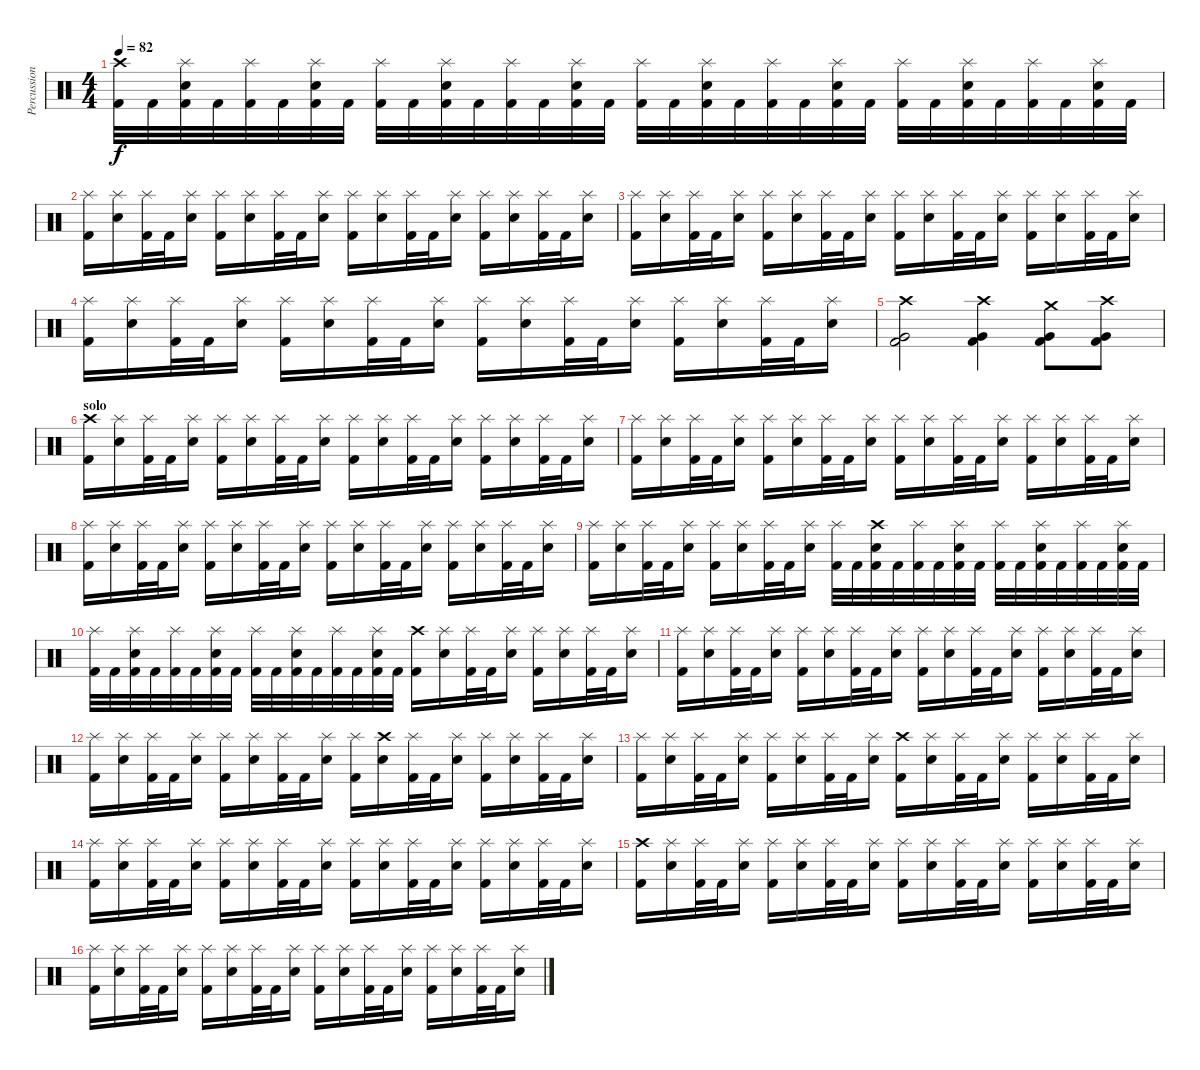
\track ("Percussion" "Percussion") {instrument percussion}
\staff {score}
\articulation defaults
\ts (4 4)
\tempo 82
\clef neutral
\ks c
("Crash high (hit)" "Kick (hit) 2").32{dy f} "Kick (hit) 2".32 ("Splash (hit)" "Electric Snare (hit)" "Kick (hit) 2").32 "Kick (hit) 2".32 ("Splash (hit)" "Kick (hit) 2").32 "Kick (hit) 2".32 ("Splash (hit)" "Electric Snare (hit)" "Kick (hit) 2").32 "Kick (hit) 2".32 ("Splash (hit)" "Kick (hit) 2").32 "Kick (hit) 2".32 ("Splash (hit)" "Electric Snare (hit)" "Kick (hit) 2").32 "Kick (hit) 2".32 ("Splash (hit)" "Kick (hit) 2").32 "Kick (hit) 2".32 ("Splash (hit)" "Electric Snare (hit)" "Kick (hit) 2").32 "Kick (hit) 2".32 ("Splash (hit)" "Kick (hit) 2").32 "Kick (hit) 2".32 ("Splash (hit)" "Electric Snare (hit)" "Kick (hit) 2").32 "Kick (hit) 2".32 ("Splash (hit)" "Kick (hit) 2").32 "Kick (hit) 2".32 ("Splash (hit)" "Electric Snare (hit)" "Kick (hit) 2").32 "Kick (hit) 2".32 ("Splash (hit)" "Kick (hit) 2").32 "Kick (hit) 2".32 ("Splash (hit)" "Electric Snare (hit)" "Kick (hit) 2").32 "Kick (hit) 2".32 ("Splash (hit)" "Kick (hit) 2").32 "Kick (hit) 2".32 ("Splash (hit)" "Electric Snare (hit)" "Kick (hit) 2").32 "Kick (hit) 2".32 |
\section ("" "")
("Splash (hit)" "Kick (hit) 2").16 ("Splash (hit)" "Electric Snare (hit)").16 ("Splash (hit)" "Kick (hit) 2").32 "Kick (hit) 2".32 ("Splash (hit)" "Electric Snare (hit)").16 ("Splash (hit)" "Kick (hit) 2").16 ("Splash (hit)" "Electric Snare (hit)").16 ("Splash (hit)" "Kick (hit) 2").32 "Kick (hit) 2".32 ("Splash (hit)" "Electric Snare (hit)").16 ("Splash (hit)" "Kick (hit) 2").16 ("Splash (hit)" "Electric Snare (hit)").16 ("Splash (hit)" "Kick (hit) 2").32 "Kick (hit) 2".32 ("Splash (hit)" "Electric Snare (hit)").16 ("Splash (hit)" "Kick (hit) 2").16 ("Splash (hit)" "Electric Snare (hit)").16 ("Splash (hit)" "Kick (hit) 2").32 "Kick (hit) 2".32 ("Splash (hit)" "Electric Snare (hit)").16 |
("Splash (hit)" "Kick (hit) 2").16 ("Splash (hit)" "Electric Snare (hit)").16 ("Splash (hit)" "Kick (hit) 2").32 "Kick (hit) 2".32 ("Splash (hit)" "Electric Snare (hit)").16 ("Splash (hit)" "Kick (hit) 2").16 ("Splash (hit)" "Electric Snare (hit)").16 ("Splash (hit)" "Kick (hit) 2").32 "Kick (hit) 2".32 ("Splash (hit)" "Electric Snare (hit)").16 ("Splash (hit)" "Kick (hit) 2").16 ("Splash (hit)" "Electric Snare (hit)").16 ("Splash (hit)" "Kick (hit) 2").32 "Kick (hit) 2".32 ("Splash (hit)" "Electric Snare (hit)").16 ("Splash (hit)" "Kick (hit) 2").16 ("Splash (hit)" "Electric Snare (hit)").16 ("Splash (hit)" "Kick (hit) 2").32 "Kick (hit) 2".32 ("Splash (hit)" "Electric Snare (hit)").16 |
("Splash (hit)" "Kick (hit) 2").16 ("Splash (hit)" "Electric Snare (hit)").16 ("Splash (hit)" "Kick (hit) 2").32 "Kick (hit) 2".32 ("Splash (hit)" "Electric Snare (hit)").16 ("Splash (hit)" "Kick (hit) 2").16 ("Splash (hit)" "Electric Snare (hit)").16 ("Splash (hit)" "Kick (hit) 2").32 "Kick (hit) 2".32 ("Splash (hit)" "Electric Snare (hit)").16 ("Splash (hit)" "Kick (hit) 2").16 ("Splash (hit)" "Electric Snare (hit)").16 ("Splash (hit)" "Kick (hit) 2").32 "Kick (hit) 2".32 ("Splash (hit)" "Electric Snare (hit)").16 ("Splash (hit)" "Kick (hit) 2").16 ("Splash (hit)" "Electric Snare (hit)").16 ("Splash (hit)" "Kick (hit) 2").32 "Kick (hit) 2".32 ("Splash (hit)" "Electric Snare (hit)").16 |
("Crash high (hit)" "Very Low Tom (hit)" "Kick (hit) 2").2 ("Crash high (hit)" "Very Low Tom (hit)" "Kick (hit) 2").4 ("Crash medium (hit)" "Very Low Tom (hit)" "Kick (hit) 2").8 ("Crash high (hit)" "Very Low Tom (hit)" "Kick (hit) 2").8 |
\section ("" "solo")
("Crash high (hit)" "Kick (hit) 2").16 ("Splash (hit)" "Electric Snare (hit)").16 ("Splash (hit)" "Kick (hit) 2").32 "Kick (hit) 2".32 ("Splash (hit)" "Electric Snare (hit)").16 ("Splash (hit)" "Kick (hit) 2").16 ("Splash (hit)" "Electric Snare (hit)").16 ("Splash (hit)" "Kick (hit) 2").32 "Kick (hit) 2".32 ("Splash (hit)" "Electric Snare (hit)").16 ("Splash (hit)" "Kick (hit) 2").16 ("Splash (hit)" "Electric Snare (hit)").16 ("Splash (hit)" "Kick (hit) 2").32 "Kick (hit) 2".32 ("Splash (hit)" "Electric Snare (hit)").16 ("Splash (hit)" "Kick (hit) 2").16 ("Splash (hit)" "Electric Snare (hit)").16 ("Splash (hit)" "Kick (hit) 2").32 "Kick (hit) 2".32 ("Splash (hit)" "Electric Snare (hit)").16 |
("Splash (hit)" "Kick (hit) 2").16 ("Splash (hit)" "Electric Snare (hit)").16 ("Splash (hit)" "Kick (hit) 2").32 "Kick (hit) 2".32 ("Splash (hit)" "Electric Snare (hit)").16 ("Splash (hit)" "Kick (hit) 2").16 ("Splash (hit)" "Electric Snare (hit)").16 ("Splash (hit)" "Kick (hit) 2").32 "Kick (hit) 2".32 ("Splash (hit)" "Electric Snare (hit)").16 ("Splash (hit)" "Kick (hit) 2").16 ("Splash (hit)" "Electric Snare (hit)").16 ("Splash (hit)" "Kick (hit) 2").32 "Kick (hit) 2".32 ("Splash (hit)" "Electric Snare (hit)").16 ("Splash (hit)" "Kick (hit) 2").16 ("Splash (hit)" "Electric Snare (hit)").16 ("Splash (hit)" "Kick (hit) 2").32 "Kick (hit) 2".32 ("Splash (hit)" "Electric Snare (hit)").16 |
("Splash (hit)" "Kick (hit) 2").16 ("Splash (hit)" "Electric Snare (hit)").16 ("Splash (hit)" "Kick (hit) 2").32 "Kick (hit) 2".32 ("Splash (hit)" "Electric Snare (hit)").16 ("Splash (hit)" "Kick (hit) 2").16 ("Splash (hit)" "Electric Snare (hit)").16 ("Splash (hit)" "Kick (hit) 2").32 "Kick (hit) 2".32 ("Splash (hit)" "Electric Snare (hit)").16 ("Splash (hit)" "Kick (hit) 2").16 ("Splash (hit)" "Electric Snare (hit)").16 ("Splash (hit)" "Kick (hit) 2").32 "Kick (hit) 2".32 ("Splash (hit)" "Electric Snare (hit)").16 ("Splash (hit)" "Kick (hit) 2").16 ("Splash (hit)" "Electric Snare (hit)").16 ("Splash (hit)" "Kick (hit) 2").32 "Kick (hit) 2".32 ("Splash (hit)" "Electric Snare (hit)").16 |
("Splash (hit)" "Kick (hit) 2").16 ("Splash (hit)" "Electric Snare (hit)").16 ("Splash (hit)" "Kick (hit) 2").32 "Kick (hit) 2".32 ("Splash (hit)" "Electric Snare (hit)").16 ("Splash (hit)" "Kick (hit) 2").16 ("Splash (hit)" "Electric Snare (hit)").16 ("Splash (hit)" "Kick (hit) 2").32 "Kick (hit) 2".32 ("Splash (hit)" "Electric Snare (hit)").16 ("Splash (hit)" "Kick (hit) 2").32 "Kick (hit) 2".32 ("Crash high (hit)" "Electric Snare (hit)" "Kick (hit) 2").32 "Kick (hit) 2".32 ("Splash (hit)" "Kick (hit) 2").32 "Kick (hit) 2".32 ("Splash (hit)" "Electric Snare (hit)" "Kick (hit) 2").32 "Kick (hit) 2".32 ("Splash (hit)" "Kick (hit) 2").32 "Kick (hit) 2".32 ("Splash (hit)" "Electric Snare (hit)" "Kick (hit) 2").32 "Kick (hit) 2".32 ("Splash (hit)" "Kick (hit) 2").32 "Kick (hit) 2".32 ("Splash (hit)" "Electric Snare (hit)" "Kick (hit) 2").32 "Kick (hit) 2".32 |
("Splash (hit)" "Kick (hit) 2").32 "Kick (hit) 2".32 ("Splash (hit)" "Electric Snare (hit)" "Kick (hit) 2").32 "Kick (hit) 2".32 ("Splash (hit)" "Kick (hit) 2").32 "Kick (hit) 2".32 ("Splash (hit)" "Electric Snare (hit)" "Kick (hit) 2").32 "Kick (hit) 2".32 ("Splash (hit)" "Kick (hit) 2").32 "Kick (hit) 2".32 ("Splash (hit)" "Electric Snare (hit)" "Kick (hit) 2").32 "Kick (hit) 2".32 ("Splash (hit)" "Kick (hit) 2").32 "Kick (hit) 2".32 ("Splash (hit)" "Electric Snare (hit)" "Kick (hit) 2").32 "Kick (hit) 2".32 ("Crash high (hit)" "Kick (hit) 2").16 ("Splash (hit)" "Electric Snare (hit)").16 ("Splash (hit)" "Kick (hit) 2").32 "Kick (hit) 2".32 ("Splash (hit)" "Electric Snare (hit)").16 ("Splash (hit)" "Kick (hit) 2").16 ("Splash (hit)" "Electric Snare (hit)").16 ("Splash (hit)" "Kick (hit) 2").32 "Kick (hit) 2".32 ("Splash (hit)" "Electric Snare (hit)").16 |
("Splash (hit)" "Kick (hit) 2").16 ("Splash (hit)" "Electric Snare (hit)").16 ("Splash (hit)" "Kick (hit) 2").32 "Kick (hit) 2".32 ("Splash (hit)" "Electric Snare (hit)").16 ("Splash (hit)" "Kick (hit) 2").16 ("Splash (hit)" "Electric Snare (hit)").16 ("Splash (hit)" "Kick (hit) 2").32 "Kick (hit) 2".32 ("Splash (hit)" "Electric Snare (hit)").16 ("Splash (hit)" "Kick (hit) 2").16 ("Splash (hit)" "Electric Snare (hit)").16 ("Splash (hit)" "Kick (hit) 2").32 "Kick (hit) 2".32 ("Splash (hit)" "Electric Snare (hit)").16 ("Splash (hit)" "Kick (hit) 2").16 ("Splash (hit)" "Electric Snare (hit)").16 ("Splash (hit)" "Kick (hit) 2").32 "Kick (hit) 2".32 ("Splash (hit)" "Electric Snare (hit)").16 |
("Splash (hit)" "Kick (hit) 2").16 ("Splash (hit)" "Electric Snare (hit)").16 ("Splash (hit)" "Kick (hit) 2").32 "Kick (hit) 2".32 ("Splash (hit)" "Electric Snare (hit)").16 ("Splash (hit)" "Kick (hit) 2").16 ("Splash (hit)" "Electric Snare (hit)").16 ("Splash (hit)" "Kick (hit) 2").32 "Kick (hit) 2".32 ("Splash (hit)" "Electric Snare (hit)").16 ("Splash (hit)" "Kick (hit) 2").16 ("Crash high (hit)" "Electric Snare (hit)").16 ("Splash (hit)" "Kick (hit) 2").32 "Kick (hit) 2".32 ("Splash (hit)" "Electric Snare (hit)").16 ("Splash (hit)" "Kick (hit) 2").16 ("Splash (hit)" "Electric Snare (hit)").16 ("Splash (hit)" "Kick (hit) 2").32 "Kick (hit) 2".32 ("Splash (hit)" "Electric Snare (hit)").16 |
("Splash (hit)" "Kick (hit) 2").16 ("Splash (hit)" "Electric Snare (hit)").16 ("Splash (hit)" "Kick (hit) 2").32 "Kick (hit) 2".32 ("Splash (hit)" "Electric Snare (hit)").16 ("Splash (hit)" "Kick (hit) 2").16 ("Splash (hit)" "Electric Snare (hit)").16 ("Splash (hit)" "Kick (hit) 2").32 "Kick (hit) 2".32 ("Splash (hit)" "Electric Snare (hit)").16 ("Crash high (hit)" "Kick (hit) 2").16 ("Splash (hit)" "Electric Snare (hit)").16 ("Splash (hit)" "Kick (hit) 2").32 "Kick (hit) 2".32 ("Splash (hit)" "Electric Snare (hit)").16 ("Splash (hit)" "Kick (hit) 2").16 ("Splash (hit)" "Electric Snare (hit)").16 ("Splash (hit)" "Kick (hit) 2").32 "Kick (hit) 2".32 ("Splash (hit)" "Electric Snare (hit)").16 |
("Splash (hit)" "Kick (hit) 2").16 ("Splash (hit)" "Electric Snare (hit)").16 ("Splash (hit)" "Kick (hit) 2").32 "Kick (hit) 2".32 ("Splash (hit)" "Electric Snare (hit)").16 ("Splash (hit)" "Kick (hit) 2").16 ("Splash (hit)" "Electric Snare (hit)").16 ("Splash (hit)" "Kick (hit) 2").32 "Kick (hit) 2".32 ("Splash (hit)" "Electric Snare (hit)").16 ("Splash (hit)" "Kick (hit) 2").16 ("Splash (hit)" "Electric Snare (hit)").16 ("Splash (hit)" "Kick (hit) 2").32 "Kick (hit) 2".32 ("Splash (hit)" "Electric Snare (hit)").16 ("Splash (hit)" "Kick (hit) 2").16 ("Splash (hit)" "Electric Snare (hit)").16 ("Splash (hit)" "Kick (hit) 2").32 "Kick (hit) 2".32 ("Splash (hit)" "Electric Snare (hit)").16 |
("Crash high (hit)" "Kick (hit) 2").16 ("Splash (hit)" "Electric Snare (hit)").16 ("Splash (hit)" "Kick (hit) 2").32 "Kick (hit) 2".32 ("Splash (hit)" "Electric Snare (hit)").16 ("Splash (hit)" "Kick (hit) 2").16 ("Splash (hit)" "Electric Snare (hit)").16 ("Splash (hit)" "Kick (hit) 2").32 "Kick (hit) 2".32 ("Splash (hit)" "Electric Snare (hit)").16 ("Splash (hit)" "Kick (hit) 2").16 ("Splash (hit)" "Electric Snare (hit)").16 ("Splash (hit)" "Kick (hit) 2").32 "Kick (hit) 2".32 ("Splash (hit)" "Electric Snare (hit)").16 ("Splash (hit)" "Kick (hit) 2").16 ("Splash (hit)" "Electric Snare (hit)").16 ("Splash (hit)" "Kick (hit) 2").32 "Kick (hit) 2".32 ("Splash (hit)" "Electric Snare (hit)").16 |
("Splash (hit)" "Kick (hit) 2").16 ("Splash (hit)" "Electric Snare (hit)").16 ("Splash (hit)" "Kick (hit) 2").32 "Kick (hit) 2".32 ("Splash (hit)" "Electric Snare (hit)").16 ("Splash (hit)" "Kick (hit) 2").16 ("Splash (hit)" "Electric Snare (hit)").16 ("Splash (hit)" "Kick (hit) 2").32 "Kick (hit) 2".32 ("Splash (hit)" "Electric Snare (hit)").16 ("Splash (hit)" "Kick (hit) 2").16 ("Splash (hit)" "Electric Snare (hit)").16 ("Splash (hit)" "Kick (hit) 2").32 "Kick (hit) 2".32 ("Splash (hit)" "Electric Snare (hit)").16 ("Splash (hit)" "Kick (hit) 2").16 ("Splash (hit)" "Electric Snare (hit)").16 ("Splash (hit)" "Kick (hit) 2").32 "Kick (hit) 2".32 ("Splash (hit)" "Electric Snare (hit)").16
